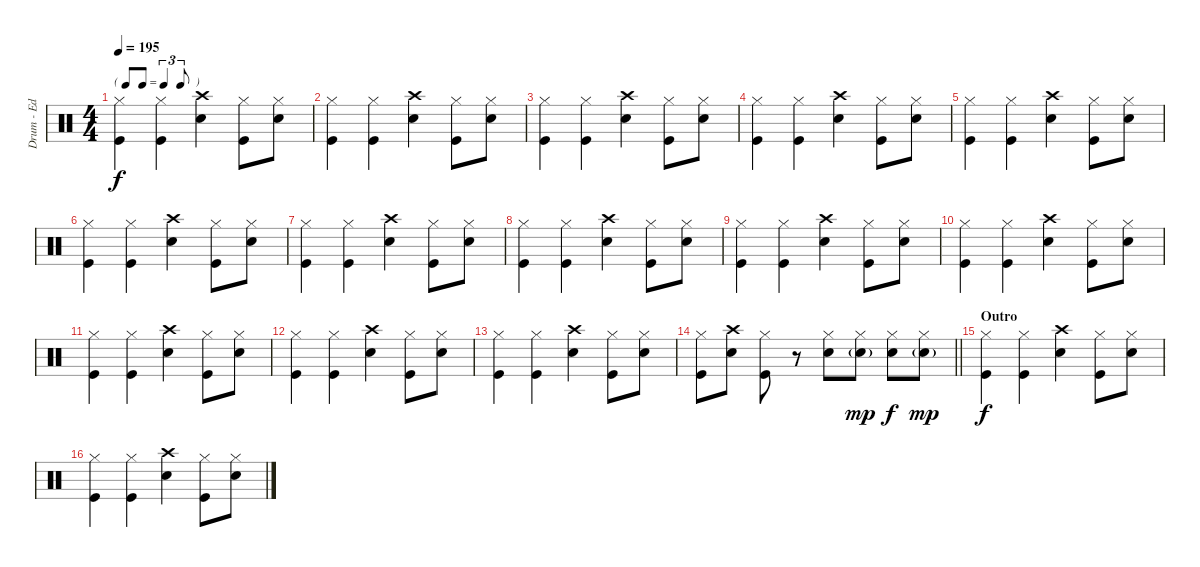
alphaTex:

\track ("Drum - Ed" "Drum - Ed") {instrument percussion}
\staff {score}
\articulation defaults
\ts (4 4)
\tf triplet8th
\tempo 195
\clef neutral
\ks c
("Hi-Hat (closed)" "Kick (hit)").4{dy f} ("Hi-Hat (closed)" "Kick (hit)").4 ("Crash high (hit)" "Electric Snare (hit)").4 ("Hi-Hat (closed)" "Kick (hit)").8 ("Hi-Hat (closed)" "Electric Snare (hit)").8 |
("Hi-Hat (closed)" "Kick (hit)").4 ("Hi-Hat (closed)" "Kick (hit)").4 ("Crash high (hit)" "Electric Snare (hit)").4 ("Hi-Hat (closed)" "Kick (hit)").8 ("Hi-Hat (closed)" "Electric Snare (hit)").8 |
("Hi-Hat (closed)" "Kick (hit)").4 ("Hi-Hat (closed)" "Kick (hit)").4 ("Crash high (hit)" "Electric Snare (hit)").4 ("Hi-Hat (closed)" "Kick (hit)").8 ("Hi-Hat (closed)" "Electric Snare (hit)").8 |
("Hi-Hat (closed)" "Kick (hit)").4 ("Hi-Hat (closed)" "Kick (hit)").4 ("Crash high (hit)" "Electric Snare (hit)").4 ("Hi-Hat (closed)" "Kick (hit)").8 ("Hi-Hat (closed)" "Electric Snare (hit)").8 |
("Hi-Hat (closed)" "Kick (hit)").4 ("Hi-Hat (closed)" "Kick (hit)").4 ("Crash high (hit)" "Electric Snare (hit)").4 ("Hi-Hat (closed)" "Kick (hit)").8 ("Hi-Hat (closed)" "Electric Snare (hit)").8 |
("Hi-Hat (closed)" "Kick (hit)").4 ("Hi-Hat (closed)" "Kick (hit)").4 ("Crash high (hit)" "Electric Snare (hit)").4 ("Hi-Hat (closed)" "Kick (hit)").8 ("Hi-Hat (closed)" "Electric Snare (hit)").8 |
("Hi-Hat (closed)" "Kick (hit)").4 ("Hi-Hat (closed)" "Kick (hit)").4 ("Crash high (hit)" "Electric Snare (hit)").4 ("Hi-Hat (closed)" "Kick (hit)").8 ("Hi-Hat (closed)" "Electric Snare (hit)").8 |
("Hi-Hat (closed)" "Kick (hit)").4 ("Hi-Hat (closed)" "Kick (hit)").4 ("Crash high (hit)" "Electric Snare (hit)").4 ("Hi-Hat (closed)" "Kick (hit)").8 ("Hi-Hat (closed)" "Electric Snare (hit)").8 |
("Hi-Hat (closed)" "Kick (hit)").4 ("Hi-Hat (closed)" "Kick (hit)").4 ("Crash high (hit)" "Electric Snare (hit)").4 ("Hi-Hat (closed)" "Kick (hit)").8 ("Hi-Hat (closed)" "Electric Snare (hit)").8 |
("Hi-Hat (closed)" "Kick (hit)").4 ("Hi-Hat (closed)" "Kick (hit)").4 ("Crash high (hit)" "Electric Snare (hit)").4 ("Hi-Hat (closed)" "Kick (hit)").8 ("Hi-Hat (closed)" "Electric Snare (hit)").8 |
("Hi-Hat (closed)" "Kick (hit)").4 ("Hi-Hat (closed)" "Kick (hit)").4 ("Crash high (hit)" "Electric Snare (hit)").4 ("Hi-Hat (closed)" "Kick (hit)").8 ("Hi-Hat (closed)" "Electric Snare (hit)").8 |
("Hi-Hat (closed)" "Kick (hit)").4 ("Hi-Hat (closed)" "Kick (hit)").4 ("Crash high (hit)" "Electric Snare (hit)").4 ("Hi-Hat (closed)" "Kick (hit)").8 ("Hi-Hat (closed)" "Electric Snare (hit)").8 |
("Hi-Hat (closed)" "Kick (hit)").4 ("Hi-Hat (closed)" "Kick (hit)").4 ("Crash high (hit)" "Electric Snare (hit)").4 ("Hi-Hat (closed)" "Kick (hit)").8 ("Hi-Hat (closed)" "Electric Snare (hit)").8 |
\barLineRight lightlight
("Hi-Hat (closed)" "Kick (hit)").8 ("Crash high (hit)" "Electric Snare (hit)").8 ("Hi-Hat (closed)" "Kick (hit)").8 r.8 ("Hi-Hat (closed)" "Electric Snare (hit)").8 ("Hi-Hat (closed)" "Electric Snare (hit)"{g}).8{dy mp} ("Hi-Hat (closed)" "Electric Snare (hit)").8{dy f} ("Hi-Hat (closed)" "Electric Snare (hit)"{g}).8{dy mp} |
\section ("" "Outro")
("Hi-Hat (closed)" "Kick (hit)").4{dy f} ("Hi-Hat (closed)" "Kick (hit)").4 ("Crash high (hit)" "Electric Snare (hit)").4 ("Hi-Hat (closed)" "Kick (hit)").8 ("Hi-Hat (closed)" "Electric Snare (hit)").8 |
("Hi-Hat (closed)" "Kick (hit)").4 ("Hi-Hat (closed)" "Kick (hit)").4 ("Crash high (hit)" "Electric Snare (hit)").4 ("Hi-Hat (closed)" "Kick (hit)").8 ("Hi-Hat (closed)" "Electric Snare (hit)").8
